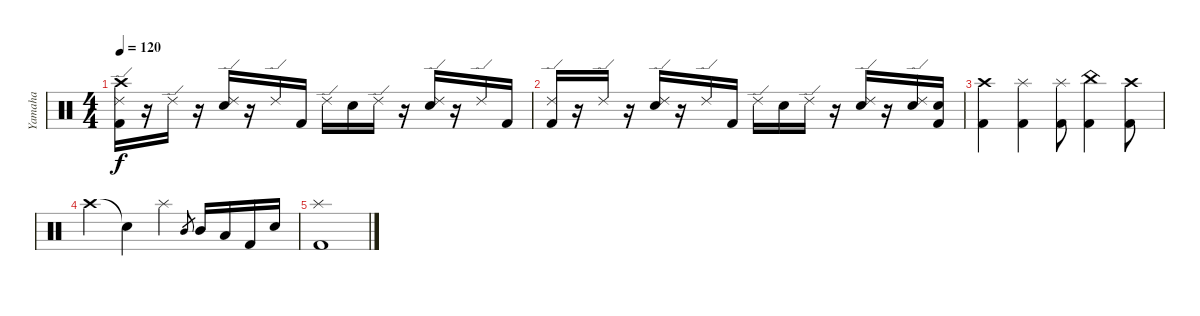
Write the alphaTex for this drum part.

\track ("Yamaha" "Yamaha") {instrument percussion}
\staff {score}
\articulation defaults
\ts (4 4)
\tempo 120
\clef neutral
\ks c
("Crash high (hit)" "Ride (edge) 2" "Kick (hit) 2").16{dy f} r.16 "Ride (edge) 2".16 r.16 ("Ride (edge) 2" "Snare (hit) 2").16 r.16 "Ride (edge) 2".16 "Kick (hit) 2".16 "Ride (edge) 2".16 "Snare (hit) 2".16 "Ride (edge) 2".16 r.16 ("Ride (edge) 2" "Snare (hit) 2").16 r.16 "Ride (edge) 2".16 "Kick (hit) 2".16 |
("Ride (edge) 2" "Kick (hit) 2").16 r.16 "Ride (edge) 2".16 r.16 ("Ride (edge) 2" "Snare (hit) 2").16 r.16 "Ride (edge) 2".16 "Kick (hit) 2".16 "Ride (edge) 2".16 "Snare (hit) 2".16 "Ride (edge) 2".16 r.16 ("Ride (edge) 2" "Snare (hit) 2").16 r.16 ("Ride (edge) 2" "Snare (hit) 2").16 ("Snare (hit) 2" "Kick (hit) 2").16 |
("Crash high (hit)" "Kick (hit) 2").4 ("Splash (hit)" "Kick (hit) 2").4 ("Splash (hit)" "Kick (hit) 2").8 ("China (hit)" "Kick (hit) 2").4 ("Crash high (hit)" "Kick (hit) 2").8 |
"Crash high (hit)".4 "Snare (hit)"{t}.4 "Splash (hit)".4 "Mid Tom (hit)".8{gr} "Mid Tom (hit)".16 "Low Tom (hit)".16 "Kick (hit) 2".16 "Snare (hit) 2".16 |
("Splash (hit)" "Kick (hit) 2").1
